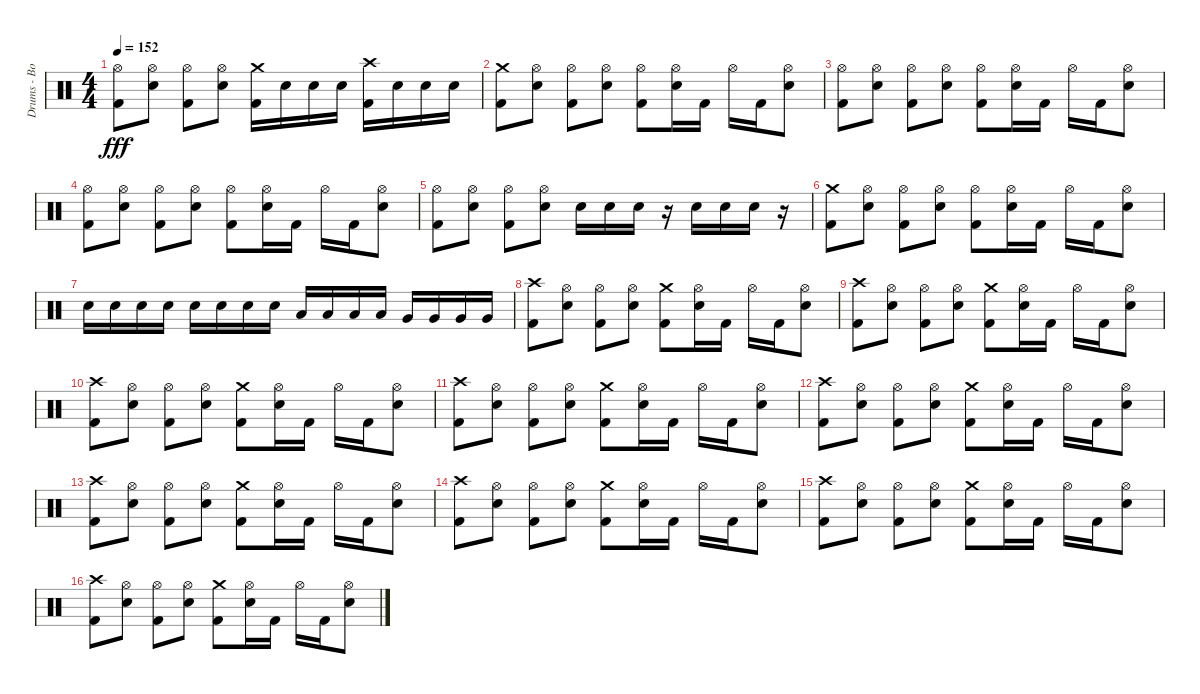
\track ("Drums - Bobby Schayer" "Drums - Bo") {instrument percussion}
\staff {score}
\articulation defaults
\ts (4 4)
\tempo 152
\clef neutral
\ks c
("Kick (hit) 2" "Hi-Hat (open)").8{dy fff} ("Electric Snare (hit)" "Hi-Hat (open)").8 ("Kick (hit) 2" "Hi-Hat (open)").8 ("Electric Snare (hit)" "Hi-Hat (open)").8 ("Crash medium (hit)" "Kick (hit) 2").16 "Electric Snare (hit)".16 "Electric Snare (hit)".16 "Electric Snare (hit)".16 ("Crash high (hit)" "Kick (hit) 2").16 "Electric Snare (hit)".16 "Electric Snare (hit)".16 "Electric Snare (hit)".16 |
("Crash medium (hit)" "Kick (hit) 2").8 ("Electric Snare (hit)" "Hi-Hat (open)").8 ("Kick (hit) 2" "Hi-Hat (open)").8 ("Electric Snare (hit)" "Hi-Hat (open)").8 ("Kick (hit) 2" "Hi-Hat (open)").8 ("Electric Snare (hit)" "Hi-Hat (open)").16 "Kick (hit) 2".16 "Hi-Hat (open)".16 "Kick (hit) 2".16 ("Electric Snare (hit)" "Hi-Hat (open)").8 |
("Kick (hit) 2" "Hi-Hat (open)").8 ("Electric Snare (hit)" "Hi-Hat (open)").8 ("Kick (hit) 2" "Hi-Hat (open)").8 ("Electric Snare (hit)" "Hi-Hat (open)").8 ("Kick (hit) 2" "Hi-Hat (open)").8 ("Electric Snare (hit)" "Hi-Hat (open)").16 "Kick (hit) 2".16 "Hi-Hat (open)".16 "Kick (hit) 2".16 ("Electric Snare (hit)" "Hi-Hat (open)").8 |
("Kick (hit) 2" "Hi-Hat (open)").8 ("Electric Snare (hit)" "Hi-Hat (open)").8 ("Kick (hit) 2" "Hi-Hat (open)").8 ("Electric Snare (hit)" "Hi-Hat (open)").8 ("Kick (hit) 2" "Hi-Hat (open)").8 ("Electric Snare (hit)" "Hi-Hat (open)").16 "Kick (hit) 2".16 "Hi-Hat (open)".16 "Kick (hit) 2".16 ("Electric Snare (hit)" "Hi-Hat (open)").8 |
("Kick (hit) 2" "Hi-Hat (open)").8 ("Electric Snare (hit)" "Hi-Hat (open)").8 ("Kick (hit) 2" "Hi-Hat (open)").8 ("Electric Snare (hit)" "Hi-Hat (open)").8 "Electric Snare (hit)".16 "Electric Snare (hit)".16 "Electric Snare (hit)".16 r.16 "Electric Snare (hit)".16 "Electric Snare (hit)".16 "Electric Snare (hit)".16 r.16 |
("Crash medium (hit)" "Kick (hit) 2").8 ("Electric Snare (hit)" "Hi-Hat (open)").8 ("Kick (hit) 2" "Hi-Hat (open)").8 ("Electric Snare (hit)" "Hi-Hat (open)").8 ("Kick (hit) 2" "Hi-Hat (open)").8 ("Electric Snare (hit)" "Hi-Hat (open)").16 "Kick (hit) 2".16 "Hi-Hat (open)".16 "Kick (hit) 2".16 ("Electric Snare (hit)" "Hi-Hat (open)").8 |
"Electric Snare (hit)".16 "Electric Snare (hit)".16 "Electric Snare (hit)".16 "Electric Snare (hit)".16 "Electric Snare (hit)".16 "Electric Snare (hit)".16 "Electric Snare (hit)".16 "Electric Snare (hit)".16 "Low Tom (hit)".16 "Low Tom (hit)".16 "Low Tom (hit)".16 "Low Tom (hit)".16 "Very Low Tom (hit)".16 "Very Low Tom (hit)".16 "Very Low Tom (hit)".16 "Very Low Tom (hit)".16 |
("Kick (hit) 2" "Crash high (hit)").8 ("Electric Snare (hit)" "Hi-Hat (open)").8 ("Kick (hit) 2" "Hi-Hat (open)").8 ("Electric Snare (hit)" "Hi-Hat (open)").8 ("Kick (hit) 2" "Crash medium (hit)").8 ("Electric Snare (hit)" "Hi-Hat (open)").16 "Kick (hit) 2".16 "Hi-Hat (open)".16 "Kick (hit) 2".16 ("Electric Snare (hit)" "Hi-Hat (open)").8 |
("Kick (hit) 2" "Crash high (hit)").8 ("Electric Snare (hit)" "Hi-Hat (open)").8 ("Kick (hit) 2" "Hi-Hat (open)").8 ("Electric Snare (hit)" "Hi-Hat (open)").8 ("Kick (hit) 2" "Crash medium (hit)").8 ("Electric Snare (hit)" "Hi-Hat (open)").16 "Kick (hit) 2".16 "Hi-Hat (open)".16 "Kick (hit) 2".16 ("Electric Snare (hit)" "Hi-Hat (open)").8 |
("Kick (hit) 2" "Crash high (hit)").8 ("Electric Snare (hit)" "Hi-Hat (open)").8 ("Kick (hit) 2" "Hi-Hat (open)").8 ("Electric Snare (hit)" "Hi-Hat (open)").8 ("Kick (hit) 2" "Crash medium (hit)").8 ("Electric Snare (hit)" "Hi-Hat (open)").16 "Kick (hit) 2".16 "Hi-Hat (open)".16 "Kick (hit) 2".16 ("Electric Snare (hit)" "Hi-Hat (open)").8 |
("Kick (hit) 2" "Crash high (hit)").8 ("Electric Snare (hit)" "Hi-Hat (open)").8 ("Kick (hit) 2" "Hi-Hat (open)").8 ("Electric Snare (hit)" "Hi-Hat (open)").8 ("Kick (hit) 2" "Crash medium (hit)").8 ("Electric Snare (hit)" "Hi-Hat (open)").16 "Kick (hit) 2".16 "Hi-Hat (open)".16 "Kick (hit) 2".16 ("Electric Snare (hit)" "Hi-Hat (open)").8 |
("Kick (hit) 2" "Crash high (hit)").8 ("Electric Snare (hit)" "Hi-Hat (open)").8 ("Kick (hit) 2" "Hi-Hat (open)").8 ("Electric Snare (hit)" "Hi-Hat (open)").8 ("Kick (hit) 2" "Crash medium (hit)").8 ("Electric Snare (hit)" "Hi-Hat (open)").16 "Kick (hit) 2".16 "Hi-Hat (open)".16 "Kick (hit) 2".16 ("Electric Snare (hit)" "Hi-Hat (open)").8 |
("Kick (hit) 2" "Crash high (hit)").8 ("Electric Snare (hit)" "Hi-Hat (open)").8 ("Kick (hit) 2" "Hi-Hat (open)").8 ("Electric Snare (hit)" "Hi-Hat (open)").8 ("Kick (hit) 2" "Crash medium (hit)").8 ("Electric Snare (hit)" "Hi-Hat (open)").16 "Kick (hit) 2".16 "Hi-Hat (open)".16 "Kick (hit) 2".16 ("Electric Snare (hit)" "Hi-Hat (open)").8 |
("Kick (hit) 2" "Crash high (hit)").8 ("Electric Snare (hit)" "Hi-Hat (open)").8 ("Kick (hit) 2" "Hi-Hat (open)").8 ("Electric Snare (hit)" "Hi-Hat (open)").8 ("Kick (hit) 2" "Crash medium (hit)").8 ("Electric Snare (hit)" "Hi-Hat (open)").16 "Kick (hit) 2".16 "Hi-Hat (open)".16 "Kick (hit) 2".16 ("Electric Snare (hit)" "Hi-Hat (open)").8 |
("Kick (hit) 2" "Crash high (hit)").8 ("Electric Snare (hit)" "Hi-Hat (open)").8 ("Kick (hit) 2" "Hi-Hat (open)").8 ("Electric Snare (hit)" "Hi-Hat (open)").8 ("Kick (hit) 2" "Crash medium (hit)").8 ("Electric Snare (hit)" "Hi-Hat (open)").16 "Kick (hit) 2".16 "Hi-Hat (open)".16 "Kick (hit) 2".16 ("Electric Snare (hit)" "Hi-Hat (open)").8 |
("Kick (hit) 2" "Crash high (hit)").8 ("Electric Snare (hit)" "Hi-Hat (open)").8 ("Kick (hit) 2" "Hi-Hat (open)").8 ("Electric Snare (hit)" "Hi-Hat (open)").8 ("Kick (hit) 2" "Crash medium (hit)").8 ("Electric Snare (hit)" "Hi-Hat (open)").16 "Kick (hit) 2".16 "Hi-Hat (open)".16 "Kick (hit) 2".16 ("Electric Snare (hit)" "Hi-Hat (open)").8
